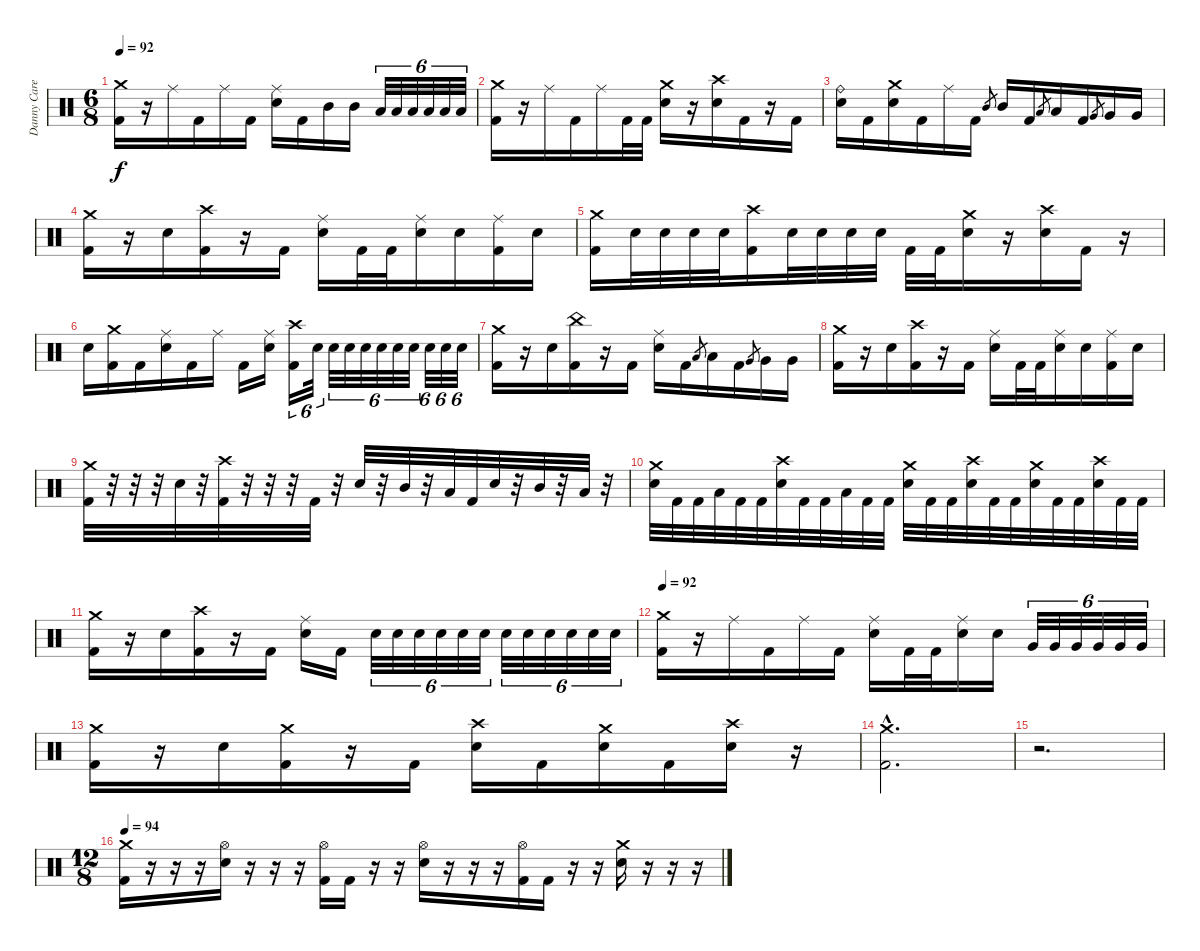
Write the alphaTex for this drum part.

\track ("Danny Carey" "Danny Care") {instrument percussion}
\staff {score}
\articulation defaults
\ts (6 8)
\tempo 92
\clef neutral
\ks c
("Crash medium (hit)" "Kick (hit) 2").16{dy f} r.16 "Ride (middle)".16 "Kick (hit) 2".16 "Ride (middle)".16 "Kick (hit) 2".16 ("Ride (middle)" "Electric Snare (hit)").16 "Kick (hit) 2".16 "Mid Tom (hit)".16 "Mid Tom (hit)".16 "Low Tom (hit)".32{tu (6 4)} "Low Tom (hit)".32{tu (6 4)} "Low Tom (hit)".32{tu (6 4)} "Low Tom (hit)".32{tu (6 4)} "Low Tom (hit)".32{tu (6 4)} "Low Tom (hit)".32{tu (6 4)} |
("Crash medium (hit)" "Kick (hit) 2").16 r.16 "Ride (middle)".16 "Kick (hit) 2".16 "Ride (middle)".16 "Kick (hit) 2".32 "Kick (hit) 2".32 ("Crash medium (hit)" "Electric Snare (hit)").16 r.16 ("Crash high (hit)" "Electric Snare (hit)").16 "Kick (hit) 2".16 r.16 "Kick (hit) 2".16 |
("Ride (bell)" "Electric Snare (hit)").16 "Kick (hit) 2".16 ("Crash medium (hit)" "Electric Snare (hit)").16 "Kick (hit) 2".16 "Ride (middle)".16 "Kick (hit) 2".16 "Mid Tom (hit)".8{gr} "Mid Tom (hit)".16 "Kick (hit) 2".16 "Low Tom (hit)".8{gr} "Low Tom (hit)".16 "Kick (hit) 2".16 "Very Low Tom (hit)".8{gr} "Very Low Tom (hit)".16 "Very Low Tom (hit)".16 |
("Crash medium (hit)" "Kick (hit) 2").16 r.16 "Electric Snare (hit)".16 ("Crash high (hit)" "Kick (hit) 2").16 r.16 "Kick (hit) 2".16 ("Ride (middle)" "Electric Snare (hit)").16 "Kick (hit) 2".32 "Kick (hit) 2".32 ("Ride (middle)" "Electric Snare (hit)").16 "Electric Snare (hit)".16 ("Ride (middle)" "Kick (hit) 2").16 "Electric Snare (hit)".16 |
("Crash medium (hit)" "Kick (hit) 2").16 "Electric Snare (hit)".32 "Electric Snare (hit)".32 "Electric Snare (hit)".32 "Electric Snare (hit)".32 ("Crash high (hit)" "Kick (hit) 2").16 "Electric Snare (hit)".32 "Electric Snare (hit)".32 "Electric Snare (hit)".32 "Electric Snare (hit)".32 "Kick (hit) 2".32 "Kick (hit) 2".32 ("Crash medium (hit)" "Electric Snare (hit)").16 r.16 ("Crash high (hit)" "Electric Snare (hit)").16 "Kick (hit) 2".16 r.16 |
"Electric Snare (hit)".16 ("Crash medium (hit)" "Kick (hit) 2").16 "Kick (hit) 2".16 ("Ride (middle)" "Electric Snare (hit)").16 "Kick (hit) 2".16 "Ride (middle)".16 "Kick (hit) 2".16 ("Ride (middle)" "Electric Snare (hit)").16 ("Crash high (hit)" "Kick (hit) 2").16{tu (6 4)} "Electric Snare (hit)".32{tu (6 4)} "Electric Snare (hit)".32{tu (6 4)} "Electric Snare (hit)".32{tu (6 4)} "Electric Snare (hit)".32{tu (6 4)} "Electric Snare (hit)".32{tu (6 4)} "Electric Snare (hit)".32{tu (6 4)} "Electric Snare (hit)".32{tu (6 4)} "Electric Snare (hit)".32{tu (6 4)} "Electric Snare (hit)".32{tu (6 4)} "Electric Snare (hit)".32{tu (6 4)} |
("Crash medium (hit)" "Kick (hit) 2").16 r.16 "Electric Snare (hit)".16 ("China (hit)" "Kick (hit) 2").16 r.16 "Kick (hit) 2".16 ("Ride (middle)" "Electric Snare (hit)").16 "Kick (hit) 2".16 "Low Tom (hit)".8{gr} "Low Tom (hit)".16 "Kick (hit) 2".16 "Very Low Tom (hit)".8{gr} "Very Low Tom (hit)".16 "Very Low Tom (hit)".16 |
("Crash medium (hit)" "Kick (hit) 2").16 r.16 "Electric Snare (hit)".16 ("Crash high (hit)" "Kick (hit) 2").16 r.16 "Kick (hit) 2".16 ("Ride (middle)" "Electric Snare (hit)").16 "Kick (hit) 2".32 "Kick (hit) 2".32 ("Ride (middle)" "Electric Snare (hit)").16 "Electric Snare (hit)".16 ("Ride (middle)" "Kick (hit) 2").16 "Electric Snare (hit)".16 |
("Crash medium (hit)" "Kick (hit) 2").32 r.32 r.32 r.32 "Electric Snare (hit)".32 r.32 ("Crash high (hit)" "Kick (hit) 2").32 r.32 r.32 r.32 "Kick (hit) 2".32 r.32 "Electric Snare (hit)".32 r.32 "Mid Tom (hit)".32 r.32 "Low Tom (hit)".32 "Kick (hit) 2".32 "Electric Snare (hit)".32 r.32 "Mid Tom (hit)".32 r.32 "Low Tom (hit)".32 r.32 |
("Crash medium (hit)" "Electric Snare (hit)").32 "Kick (hit) 2".32 "Kick (hit) 2".32 "Low Floor Tom (hit)".32 "Kick (hit) 2".32 "Kick (hit) 2".32 ("Crash high (hit)" "Electric Snare (hit)").32 "Kick (hit) 2".32 "Kick (hit) 2".32 "Low Floor Tom (hit)".32 "Kick (hit) 2".32 "Kick (hit) 2".32 ("Crash medium (hit)" "Electric Snare (hit)").32 "Kick (hit) 2".32 "Kick (hit) 2".32 ("Crash high (hit)" "Electric Snare (hit)").32 "Kick (hit) 2".32 "Kick (hit) 2".32 ("Crash medium (hit)" "Electric Snare (hit)").32 "Kick (hit) 2".32 "Kick (hit) 2".32 ("Crash high (hit)" "Electric Snare (hit)").32 "Kick (hit) 2".32 "Kick (hit) 2".32 |
("Crash medium (hit)" "Kick (hit) 2").16 r.16 "Electric Snare (hit)".16 ("Crash high (hit)" "Kick (hit) 2").16 r.16 "Kick (hit) 2".16 ("Ride (middle)" "Electric Snare (hit)").16 "Kick (hit) 2".16 "Electric Snare (hit)".32{tu (6 4)} "Electric Snare (hit)".32{tu (6 4)} "Electric Snare (hit)".32{tu (6 4)} "Electric Snare (hit)".32{tu (6 4)} "Electric Snare (hit)".32{tu (6 4)} "Electric Snare (hit)".32{tu (6 4)} "Electric Snare (hit)".32{tu (6 4)} "Electric Snare (hit)".32{tu (6 4)} "Electric Snare (hit)".32{tu (6 4)} "Electric Snare (hit)".32{tu (6 4)} "Electric Snare (hit)".32{tu (6 4)} "Electric Snare (hit)".32{tu (6 4)} |
\tempo 92
("Crash medium (hit)" "Kick (hit) 2").16 r.16 "Ride (middle)".16 "Kick (hit) 2".16 "Ride (middle)".16 "Kick (hit) 2".16 ("Ride (middle)" "Electric Snare (hit)").16 "Kick (hit) 2".32 "Kick (hit) 2".32 ("Ride (middle)" "Electric Snare (hit)").16 "Electric Snare (hit)".16 "Very Low Tom (hit)".32{tu (6 4)} "Very Low Tom (hit)".32{tu (6 4)} "Very Low Tom (hit)".32{tu (6 4)} "Very Low Tom (hit)".32{tu (6 4)} "Very Low Tom (hit)".32{tu (6 4)} "Very Low Tom (hit)".32{tu (6 4)} |
("Crash medium (hit)" "Kick (hit) 2").16 r.16 "Electric Snare (hit)".16 ("Crash medium (hit)" "Kick (hit) 2").16 r.16 "Kick (hit) 2".16 ("Crash high (hit)" "Electric Snare (hit)").16 "Kick (hit) 2".16 ("Crash medium (hit)" "Electric Snare (hit)").16 "Kick (hit) 2".16 ("Crash high (hit)" "Electric Snare (hit)").16 r.16 |
("Crash medium (hit)"{hac} "Kick (hit) 2"{hac}).2{d} |
r.2{d} |
\ts (12 8)
\tempo 94
("Crash medium (hit)" "Kick (hit) 2").16 r.16 r.16 r.16 ("Hi-Hat (open)" "Electric Snare (hit)").16 r.16 r.16 r.16 ("Hi-Hat (open)" "Kick (hit) 2").16 "Kick (hit) 2".16 r.16 r.16 ("Hi-Hat (open)" "Electric Snare (hit)").16 r.16 r.16 r.16 ("Hi-Hat (open)" "Kick (hit) 2").16 "Kick (hit) 2".16 r.16 r.16 ("Crash medium (hit)" "Electric Snare (hit)").16 r.16 r.16 r.16
